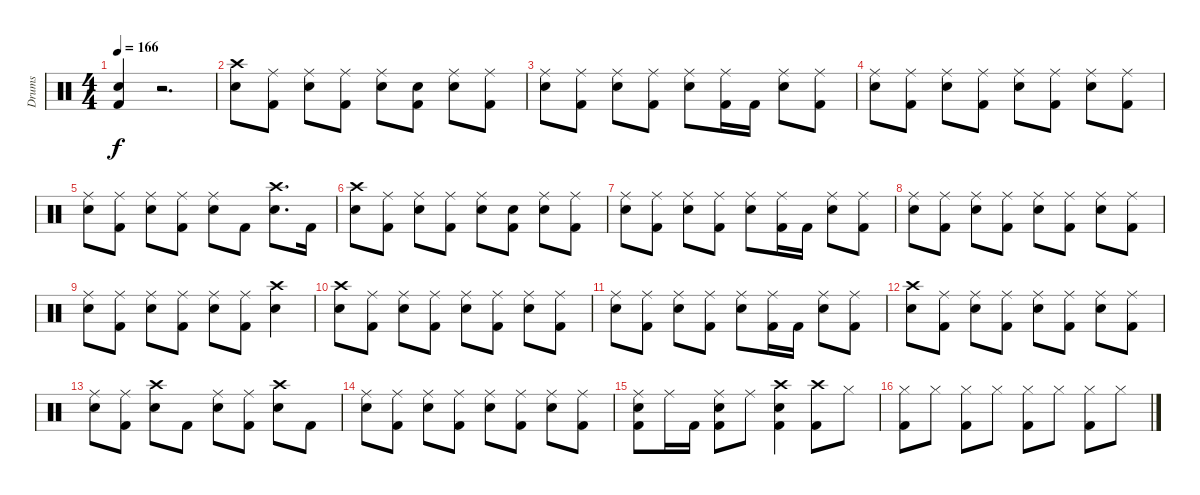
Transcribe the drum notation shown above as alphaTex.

\track ("Drums" "Drums") {instrument percussion}
\staff {score}
\articulation defaults
\ts (4 4)
\tempo 166
\clef neutral
\ks c
("Snare (hit) 2" "Kick (hit) 2").4{dy f} r.2{d} |
("Crash high (hit)" "Snare (hit) 2").8 ("Ride (middle)" "Kick (hit) 2").8 ("Ride (middle)" "Snare (hit) 2").8 ("Ride (middle)" "Kick (hit) 2").8 ("Ride (middle)" "Snare (hit) 2").8 ("Snare (hit)" "Kick (hit) 2").8 ("Ride (middle)" "Snare (hit) 2").8 ("Ride (middle)" "Kick (hit) 2").8 |
("Ride (middle)" "Snare (hit) 2").8 ("Ride (middle)" "Kick (hit) 2").8 ("Ride (middle)" "Snare (hit) 2").8 ("Ride (middle)" "Kick (hit) 2").8 ("Ride (middle)" "Snare (hit) 2").8 ("Ride (middle)" "Kick (hit) 2").16 "Kick (hit) 2".16 ("Ride (middle)" "Snare (hit) 2").8 ("Ride (middle)" "Kick (hit) 2").8 |
("Ride (middle)" "Snare (hit) 2").8 ("Ride (middle)" "Kick (hit) 2").8 ("Ride (middle)" "Snare (hit) 2").8 ("Ride (middle)" "Kick (hit) 2").8 ("Ride (middle)" "Snare (hit) 2").8 ("Ride (middle)" "Kick (hit) 2").8 ("Ride (middle)" "Snare (hit) 2").8 ("Ride (middle)" "Kick (hit) 2").8 |
("Ride (middle)" "Snare (hit) 2").8 ("Ride (middle)" "Kick (hit) 2").8 ("Ride (middle)" "Snare (hit) 2").8 ("Ride (middle)" "Kick (hit) 2").8 ("Ride (middle)" "Snare (hit) 2").8 "Kick (hit) 2".8 ("Crash high (hit)" "Snare (hit) 2").8{d} "Kick (hit) 2".16 |
("Crash high (hit)" "Snare (hit) 2").8 ("Ride (middle)" "Kick (hit) 2").8 ("Ride (middle)" "Snare (hit) 2").8 ("Ride (middle)" "Kick (hit) 2").8 ("Ride (middle)" "Snare (hit) 2").8 ("Snare (hit)" "Kick (hit) 2").8 ("Ride (middle)" "Snare (hit) 2").8 ("Ride (middle)" "Kick (hit) 2").8 |
("Ride (middle)" "Snare (hit) 2").8 ("Ride (middle)" "Kick (hit) 2").8 ("Ride (middle)" "Snare (hit) 2").8 ("Ride (middle)" "Kick (hit) 2").8 ("Ride (middle)" "Snare (hit) 2").8 ("Ride (middle)" "Kick (hit) 2").16 "Kick (hit) 2".16 ("Ride (middle)" "Snare (hit) 2").8 ("Ride (middle)" "Kick (hit) 2").8 |
("Ride (middle)" "Snare (hit) 2").8 ("Ride (middle)" "Kick (hit) 2").8 ("Ride (middle)" "Snare (hit) 2").8 ("Ride (middle)" "Kick (hit) 2").8 ("Ride (middle)" "Snare (hit) 2").8 ("Ride (middle)" "Kick (hit) 2").8 ("Ride (middle)" "Snare (hit) 2").8 ("Ride (middle)" "Kick (hit) 2").8 |
("Ride (middle)" "Snare (hit) 2").8 ("Ride (middle)" "Kick (hit) 2").8 ("Ride (middle)" "Snare (hit) 2").8 ("Ride (middle)" "Kick (hit) 2").8 ("Ride (middle)" "Snare (hit) 2").8 ("Ride (middle)" "Kick (hit) 2").8 ("Crash high (hit)" "Snare (hit) 2").4 |
("Crash high (hit)" "Snare (hit) 2").8 ("Ride (middle)" "Kick (hit) 2").8 ("Ride (middle)" "Snare (hit) 2").8 ("Ride (middle)" "Kick (hit) 2").8 ("Ride (middle)" "Snare (hit) 2").8 ("Ride (middle)" "Kick (hit) 2").8 ("Ride (middle)" "Snare (hit) 2").8 ("Ride (middle)" "Kick (hit) 2").8 |
("Ride (middle)" "Snare (hit) 2").8 ("Ride (middle)" "Kick (hit) 2").8 ("Ride (middle)" "Snare (hit) 2").8 ("Ride (middle)" "Kick (hit) 2").8 ("Ride (middle)" "Snare (hit) 2").8 ("Ride (middle)" "Kick (hit) 2").16 "Kick (hit) 2".16 ("Ride (middle)" "Snare (hit) 2").8 ("Ride (middle)" "Kick (hit) 2").8 |
("Crash high (hit)" "Snare (hit) 2").8 ("Ride (middle)" "Kick (hit) 2").8 ("Ride (middle)" "Snare (hit) 2").8 ("Ride (middle)" "Kick (hit) 2").8 ("Ride (middle)" "Snare (hit) 2").8 ("Ride (middle)" "Kick (hit) 2").8 ("Ride (middle)" "Snare (hit) 2").8 ("Ride (middle)" "Kick (hit) 2").8 |
("Ride (middle)" "Snare (hit) 2").8 ("Ride (middle)" "Kick (hit) 2").8 ("Crash high (hit)" "Snare (hit) 2").8 "Kick (hit) 2".8 ("Ride (middle)" "Snare (hit) 2").8 ("Ride (middle)" "Kick (hit) 2").8 ("Crash high (hit)" "Snare (hit) 2").8 "Kick (hit) 2".8 |
("Ride (middle)" "Snare (hit) 2").8 ("Ride (middle)" "Kick (hit) 2").8 ("Ride (middle)" "Snare (hit) 2").8 ("Ride (middle)" "Kick (hit) 2").8 ("Ride (middle)" "Snare (hit) 2").8 ("Ride (middle)" "Kick (hit) 2").8 ("Ride (middle)" "Snare (hit) 2").8 ("Ride (middle)" "Kick (hit) 2").8 |
("Ride (middle)" "Snare (hit) 2" "Kick (hit) 2").8 "Ride (middle)".16 "Kick (hit) 2".16 ("Ride (middle)" "Snare (hit) 2" "Kick (hit) 2").8 "Ride (middle)".8 ("Crash high (hit)" "Snare (hit) 2" "Kick (hit) 2").4 ("Crash high (hit)" "Kick (hit) 2").8 "Hi-Hat (closed)".8 |
("Hi-Hat (closed)" "Kick (hit) 2").8 "Hi-Hat (closed)".8 ("Hi-Hat (closed)" "Kick (hit) 2").8 "Hi-Hat (closed)".8 ("Hi-Hat (closed)" "Kick (hit) 2").8 "Hi-Hat (closed)".8 ("Hi-Hat (closed)" "Kick (hit) 2").8 "Hi-Hat (closed)".8
